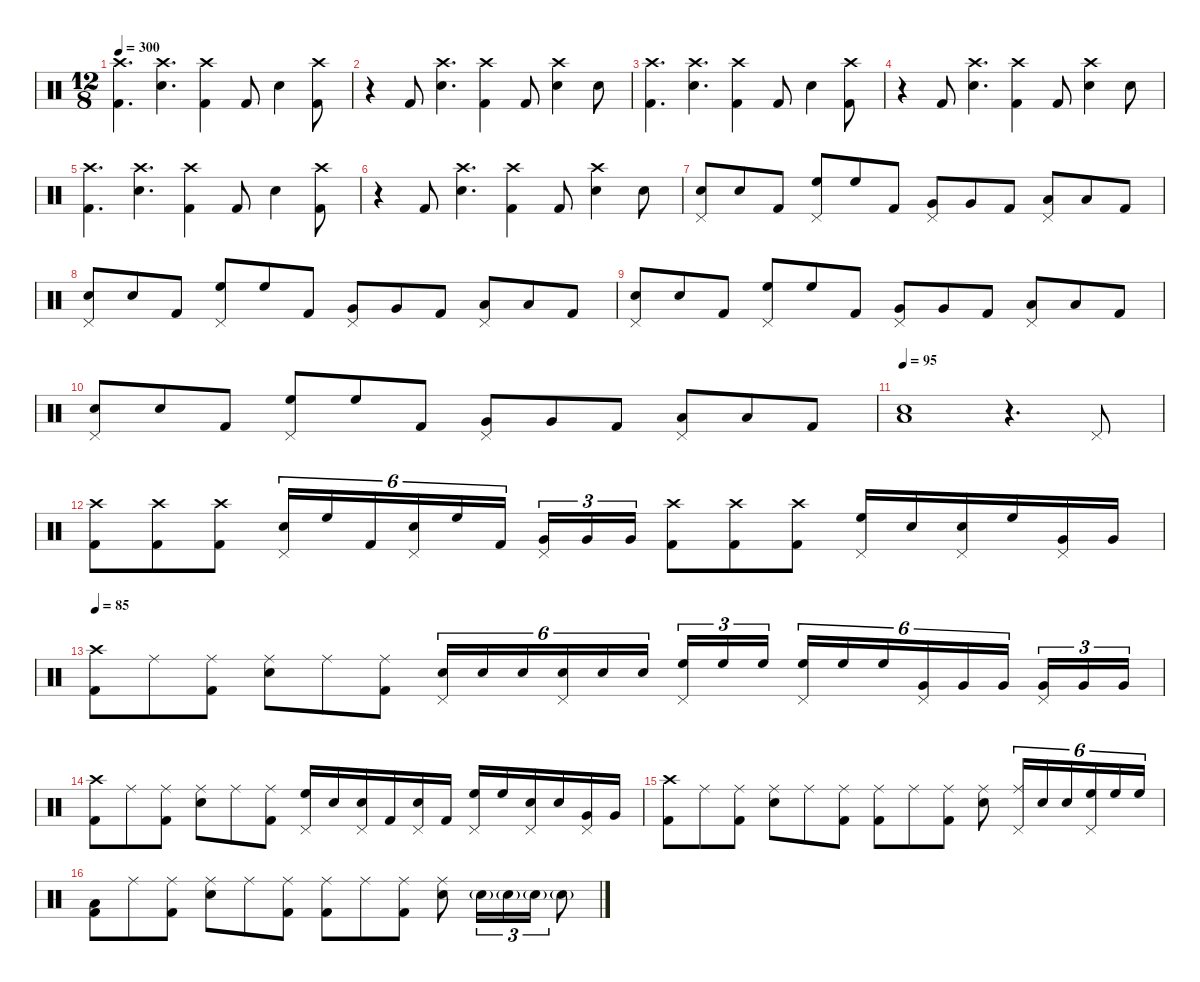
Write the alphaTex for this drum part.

\defaultSystemsLayout 4
\hideDynamics
\bracketExtendMode nobrackets
\singleTrackTrackNamePolicy hidden
\multiTrackTrackNamePolicy hidden
\firstSystemTrackNameMode fullname
\firstSystemTrackNameOrientation horizontal
\otherSystemsTrackNameOrientation horizontal
\track ("Drums" "drm.") {instrument percussion}
\staff {score}
\articulation defaults
\ts (12 8)
\tempo 300
\clef neutral
\ks c
("Crash high (hit)" "Kick (hit) 2").4{d dy f beam Down} ("Crash high (hit)" "Snare (hit) 2").4{d beam Down} ("Crash high (hit)" "Kick (hit) 2").4{beam Down} "Kick (hit) 2".8{beam Up} "Snare (hit) 2".4{beam Down} ("Crash high (hit)" "Kick (hit) 2").8{beam Down} |
r.4{beam Down} "Kick (hit) 2".8{beam Up} ("Crash high (hit)" "Snare (hit) 2").4{d beam Down} ("Crash high (hit)" "Kick (hit) 2").4{beam Down} "Kick (hit) 2".8{beam Up} ("Crash high (hit)" "Snare (hit) 2").4{beam Down} "Snare (hit) 2".8{beam Down} |
("Crash high (hit)" "Kick (hit) 2").4{d beam Down} ("Crash high (hit)" "Snare (hit) 2").4{d beam Down} ("Crash high (hit)" "Kick (hit) 2").4{beam Down} "Kick (hit) 2".8{beam Up} "Snare (hit) 2".4{beam Down} ("Crash high (hit)" "Kick (hit) 2").8{beam Down} |
r.4{beam Down} "Kick (hit) 2".8{beam Up} ("Crash high (hit)" "Snare (hit) 2").4{d beam Down} ("Crash high (hit)" "Kick (hit) 2").4{beam Down} "Kick (hit) 2".8{beam Up} ("Crash high (hit)" "Snare (hit) 2").4{beam Down} "Snare (hit) 2".8{beam Down} |
("Crash high (hit)" "Kick (hit) 2").4{d beam Down} ("Crash high (hit)" "Snare (hit) 2").4{d beam Down} ("Crash high (hit)" "Kick (hit) 2").4{beam Down} "Kick (hit) 2".8{beam Up} "Snare (hit) 2".4{beam Down} ("Crash high (hit)" "Kick (hit) 2").8{beam Down} |
r.4{beam Down} "Kick (hit) 2".8{beam Up} ("Crash high (hit)" "Snare (hit) 2").4{d beam Down} ("Crash high (hit)" "Kick (hit) 2").4{beam Down} "Kick (hit) 2".8{beam Up} ("Crash high (hit)" "Snare (hit) 2").4{beam Down} "Snare (hit) 2".8{beam Down} |
("Pedal Hi-Hat (hit)" "Snare (hit) 2").8{beam Up} "Snare (hit) 2".8{beam Up} "Kick (hit) 2".8{beam Up} ("Pedal Hi-Hat (hit)" "High Floor Tom (hit)").8{beam Up} "High Floor Tom (hit)".8{beam Up} "Kick (hit) 2".8{beam Up} ("Pedal Hi-Hat (hit)" "Very Low Tom (hit)").8{beam Up} "Very Low Tom (hit)".8{beam Up} "Kick (hit) 2".8{beam Up} ("Pedal Hi-Hat (hit)" "Low Floor Tom (hit)").8{beam Up} "Low Floor Tom (hit)".8{beam Up} "Kick (hit) 2".8{beam Up} |
("Pedal Hi-Hat (hit)" "Snare (hit) 2").8{beam Up} "Snare (hit) 2".8{beam Up} "Kick (hit) 2".8{beam Up} ("Pedal Hi-Hat (hit)" "High Floor Tom (hit)").8{beam Up} "High Floor Tom (hit)".8{beam Up} "Kick (hit) 2".8{beam Up} ("Pedal Hi-Hat (hit)" "Very Low Tom (hit)").8{beam Up} "Very Low Tom (hit)".8{beam Up} "Kick (hit) 2".8{beam Up} ("Pedal Hi-Hat (hit)" "Low Floor Tom (hit)").8{beam Up} "Low Floor Tom (hit)".8{beam Up} "Kick (hit) 2".8{beam Up} |
("Pedal Hi-Hat (hit)" "Snare (hit) 2").8{beam Up} "Snare (hit) 2".8{beam Up} "Kick (hit) 2".8{beam Up} ("Pedal Hi-Hat (hit)" "High Floor Tom (hit)").8{beam Up} "High Floor Tom (hit)".8{beam Up} "Kick (hit) 2".8{beam Up} ("Pedal Hi-Hat (hit)" "Very Low Tom (hit)").8{beam Up} "Very Low Tom (hit)".8{beam Up} "Kick (hit) 2".8{beam Up} ("Pedal Hi-Hat (hit)" "Low Floor Tom (hit)").8{beam Up} "Low Floor Tom (hit)".8{beam Up} "Kick (hit) 2".8{beam Up} |
("Pedal Hi-Hat (hit)" "Snare (hit) 2").8{beam Up} "Snare (hit) 2".8{beam Up} "Kick (hit) 2".8{beam Up} ("Pedal Hi-Hat (hit)" "High Floor Tom (hit)").8{beam Up} "High Floor Tom (hit)".8{beam Up} "Kick (hit) 2".8{beam Up} ("Pedal Hi-Hat (hit)" "Very Low Tom (hit)").8{beam Up} "Very Low Tom (hit)".8{beam Up} "Kick (hit) 2".8{beam Up} ("Pedal Hi-Hat (hit)" "Low Floor Tom (hit)").8{beam Up} "Low Floor Tom (hit)".8{beam Up} "Kick (hit) 2".8{beam Up} |
\tempo 95
("Low Floor Tom (hit)" "Snare (hit) 2").1{beam Down} r.4{d beam Down} "Pedal Hi-Hat (hit)".8{beam Up} |
("Crash high (hit)" "Kick (hit) 2").8{beam Down} ("Crash high (hit)" "Kick (hit) 2").8{beam Down} ("Crash high (hit)" "Kick (hit) 2").8{beam Down} ("Pedal Hi-Hat (hit)" "Snare (hit) 2").16{tu (6 4) beam Up} "High Floor Tom (hit)".16{tu (6 4) beam Up} "Kick (hit) 2".16{tu (6 4) beam Up} ("Pedal Hi-Hat (hit)" "Snare (hit) 2").16{tu (6 4) beam Up} "High Floor Tom (hit)".16{tu (6 4) beam Up} "Kick (hit) 2".16{tu (6 4) beam Up} ("Pedal Hi-Hat (hit)" "Very Low Tom (hit)").16{tu (3 2) beam Up} "Very Low Tom (hit)".16{tu (3 2) beam Up} "Very Low Tom (hit)".16{tu (3 2) beam Up} ("Crash high (hit)" "Kick (hit) 2").8{beam Down} ("Crash high (hit)" "Kick (hit) 2").8{beam Down} ("Crash high (hit)" "Kick (hit) 2").8{beam Down} ("Pedal Hi-Hat (hit)" "High Floor Tom (hit)").16{beam Up} "Snare (hit) 2".16{beam Up} ("Pedal Hi-Hat (hit)" "Snare (hit) 2").16{beam Up} "High Floor Tom (hit)".16{beam Up} ("Pedal Hi-Hat (hit)" "Very Low Tom (hit)").16{beam Up} "Very Low Tom (hit)".16{beam Up} |
\tempo 85
("Crash high (hit)" "Kick (hit) 2").8{beam Down} "Ride (middle)".8{beam Down} ("Ride (middle)" "Kick (hit) 2").8{beam Down} ("Ride (middle)" "Snare (hit) 2").8{beam Down} "Ride (middle)".8{beam Down} ("Ride (middle)" "Kick (hit) 2").8{beam Down} ("Pedal Hi-Hat (hit)" "Snare (hit) 2").16{tu (6 4) beam Up} "Snare (hit) 2".16{tu (6 4) beam Up} "Snare (hit) 2".16{tu (6 4) beam Up} ("Pedal Hi-Hat (hit)" "Snare (hit) 2").16{tu (6 4) beam Up} "Snare (hit) 2".16{tu (6 4) beam Up} "Snare (hit) 2".16{tu (6 4) beam Up} ("Pedal Hi-Hat (hit)" "High Floor Tom (hit)").16{tu (3 2) beam Up} "High Floor Tom (hit)".16{tu (3 2) beam Up} "High Floor Tom (hit)".16{tu (3 2) beam Up} ("Pedal Hi-Hat (hit)" "High Floor Tom (hit)").16{tu (6 4) beam Up} "High Floor Tom (hit)".16{tu (6 4) beam Up} "High Floor Tom (hit)".16{tu (6 4) beam Up} ("Pedal Hi-Hat (hit)" "Very Low Tom (hit)").16{tu (6 4) beam Up} "Very Low Tom (hit)".16{tu (6 4) beam Up} "Very Low Tom (hit)".16{tu (6 4) beam Up} ("Pedal Hi-Hat (hit)" "Very Low Tom (hit)").16{tu (3 2) beam Up} "Very Low Tom (hit)".16{tu (3 2) beam Up} "Very Low Tom (hit)".16{tu (3 2) beam Up} |
("Crash high (hit)" "Kick (hit) 2").8{beam Down} "Ride (middle)".8{beam Down} ("Ride (middle)" "Kick (hit) 2").8{beam Down} ("Ride (middle)" "Snare (hit) 2").8{beam Down} "Ride (middle)".8{beam Down} ("Ride (middle)" "Kick (hit) 2").8{beam Down} ("Pedal Hi-Hat (hit)" "High Floor Tom (hit)").16{beam Up} "Snare (hit) 2".16{beam Up} ("Pedal Hi-Hat (hit)" "Snare (hit) 2").16{beam Up} "Kick (hit) 2".16{beam Up} ("Pedal Hi-Hat (hit)" "Snare (hit) 2").16{beam Up} "Kick (hit) 2".16{beam Up} ("Pedal Hi-Hat (hit)" "High Floor Tom (hit)").16{beam Up} "High Floor Tom (hit)".16{beam Up} ("Pedal Hi-Hat (hit)" "Snare (hit) 2").16{beam Up} "Snare (hit) 2".16{beam Up} ("Pedal Hi-Hat (hit)" "Very Low Tom (hit)").16{beam Up} "Very Low Tom (hit)".16{beam Up} |
("Crash high (hit)" "Kick (hit) 2").8{beam Down} "Ride (middle)".8{beam Down} ("Ride (middle)" "Kick (hit) 2").8{beam Down} ("Ride (middle)" "Snare (hit) 2").8{beam Down} "Ride (middle)".8{beam Down} ("Ride (middle)" "Kick (hit) 2").8{beam Down} ("Ride (middle)" "Kick (hit) 2").8{beam Down} "Ride (middle)".8{beam Down} ("Ride (middle)" "Kick (hit) 2").8{beam Down} ("Ride (middle)" "Snare (hit) 2").8{beam Down} ("Pedal Hi-Hat (hit)" "Ride (middle)").16{tu (6 4) beam Up} "Snare (hit) 2".16{tu (6 4) beam Up} "Snare (hit) 2".16{tu (6 4) beam Up} ("Pedal Hi-Hat (hit)" "High Floor Tom (hit)").16{tu (6 4) beam Up} "High Floor Tom (hit)".16{tu (6 4) beam Up} "High Floor Tom (hit)".16{tu (6 4) beam Up} |
("Low Floor Tom (hit)" "Kick (hit) 2").8{beam Down} "Ride (middle)".8{beam Down} ("Ride (middle)" "Kick (hit) 2").8{beam Down} ("Ride (middle)" "Snare (hit) 2").8{beam Down} "Ride (middle)".8{beam Down} ("Ride (middle)" "Kick (hit) 2").8{beam Down} ("Ride (middle)" "Kick (hit) 2").8{beam Down} "Ride (middle)".8{beam Down} ("Ride (middle)" "Kick (hit) 2").8{beam Down} ("Ride (middle)" "Snare (hit) 2").8{beam Down} "Snare (hit) 2"{g}.16{tu (3 2) dy mf beam Down} "Snare (hit) 2"{g}.16{tu (3 2) beam Down} "Snare (hit) 2"{g}.16{tu (3 2) beam Down} "Snare (hit) 2"{g}.8{beam Down}
